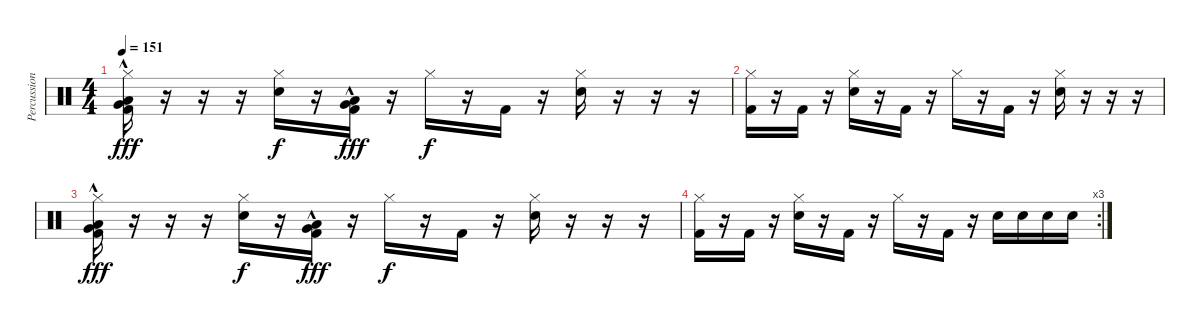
\track ("Percussion" "Percussion") {instrument percussion}
\staff {score}
\articulation defaults
\ts (4 4)
\tempo 151
\clef neutral
\ks c
("Hi-Hat (closed)" "Low Floor Tom (hit)"{hac} "Very Low Tom (hit)"{hac} "Kick (hit) 2").16{dy fff} r.16 r.16 r.16 ("Hi-Hat (closed)" "Snare (hit) 2").16{dy f} r.16 ("Low Floor Tom (hit)"{hac} "Very Low Tom (hit)"{hac} "Kick (hit) 2").16{dy fff} r.16 "Hi-Hat (closed)".16{dy f} r.16 "Kick (hit) 2".16 r.16 ("Hi-Hat (closed)" "Snare (hit) 2").16 r.16 r.16 r.16 |
("Hi-Hat (closed)" "Kick (hit) 2").16 r.16 "Kick (hit) 2".16 r.16 ("Hi-Hat (closed)" "Snare (hit) 2").16 r.16 "Kick (hit) 2".16 r.16 "Hi-Hat (closed)".16 r.16 "Kick (hit) 2".16 r.16 ("Hi-Hat (closed)" "Snare (hit) 2").16 r.16 r.16 r.16 |
("Hi-Hat (closed)" "Low Floor Tom (hit)"{hac} "Very Low Tom (hit)"{hac} "Kick (hit) 2").16{dy fff} r.16 r.16 r.16 ("Hi-Hat (closed)" "Snare (hit) 2").16{dy f} r.16 ("Low Floor Tom (hit)"{hac} "Very Low Tom (hit)"{hac} "Kick (hit) 2").16{dy fff} r.16 "Hi-Hat (closed)".16{dy f} r.16 "Kick (hit) 2".16 r.16 ("Hi-Hat (closed)" "Snare (hit) 2").16 r.16 r.16 r.16 |
\rc 3
("Hi-Hat (closed)" "Kick (hit) 2").16 r.16 "Kick (hit) 2".16 r.16 ("Hi-Hat (closed)" "Snare (hit) 2").16 r.16 "Kick (hit) 2".16 r.16 "Hi-Hat (closed)".16 r.16 "Kick (hit) 2".16 r.16 "Snare (hit) 2".16 "Snare (hit) 2".16 "Snare (hit) 2".16 "Snare (hit) 2".16
